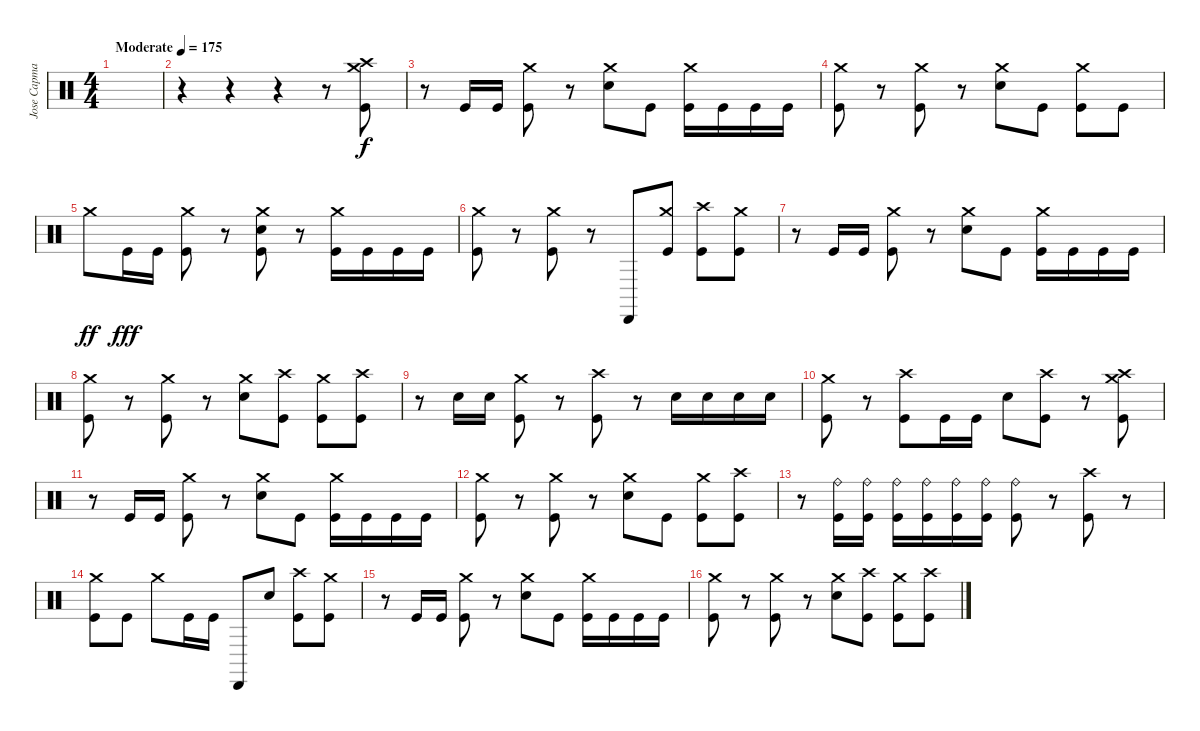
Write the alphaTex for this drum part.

\track ("Jose Capmany" "Jose Capma") {instrument percussion}
\staff {score}
\articulation defaults
\ts (4 4)
\tempo (175 "Moderate")
\clef neutral
\ks c
|
r.4 r.4 r.4 r.8 ("Crash high (hit)" "Crash medium (hit)" "Kick (hit)").8 |
r.8 "Kick (hit)".16 "Kick (hit)".16 ("Crash medium (hit)" "Kick (hit)").8 r.8 ("Crash medium (hit)" "Snare (hit) 2").8 "Kick (hit)".8 ("Crash medium (hit)" "Kick (hit)").16 "Kick (hit)".16 "Kick (hit)".16 "Kick (hit)".16 |
("Crash medium (hit)" "Kick (hit)").8 r.8 ("Crash medium (hit)" "Kick (hit)").8 r.8 ("Crash medium (hit)" "Snare (hit) 2").8 "Kick (hit)".8 ("Crash medium (hit)" "Kick (hit)").8 "Kick (hit)".8 |
"Crash medium (hit)".8{dy ff} "Kick (hit)".16{dy fff} "Kick (hit)".16 ("Crash medium (hit)" "Kick (hit)").8 r.8 ("Crash medium (hit)" "Snare (hit) 2" "Kick (hit)").8 r.8 ("Crash medium (hit)" "Kick (hit)").16 "Kick (hit)".16 "Kick (hit)".16 "Kick (hit)".16 |
("Crash medium (hit)" "Kick (hit)").8 r.8 ("Crash medium (hit)" "Kick (hit)").8 r.8 "Cabasa (hit)".8 ("Crash medium (hit)" "Kick (hit)").8 ("Crash high (hit)" "Kick (hit)").8 ("Crash medium (hit)" "Kick (hit)").8 |
r.8 "Kick (hit)".16 "Kick (hit)".16 ("Crash medium (hit)" "Kick (hit)").8 r.8 ("Crash medium (hit)" "Snare (hit) 2").8 "Kick (hit)".8 ("Crash medium (hit)" "Kick (hit)").16 "Kick (hit)".16 "Kick (hit)".16 "Kick (hit)".16 |
("Crash medium (hit)" "Kick (hit)").8 r.8 ("Crash medium (hit)" "Kick (hit)").8 r.8 ("Crash medium (hit)" "Snare (hit) 2").8 ("Crash high (hit)" "Kick (hit)").8 ("Crash medium (hit)" "Kick (hit)").8 ("Crash high (hit)" "Kick (hit)").8 |
r.8 "Snare (hit) 2".16 "Snare (hit) 2".16 ("Crash medium (hit)" "Kick (hit)").8 r.8 ("Crash high (hit)" "Kick (hit)").8 r.8 "Snare (hit) 2".16 "Snare (hit) 2".16 "Snare (hit) 2".16 "Snare (hit) 2".16 |
("Crash medium (hit)" "Kick (hit)").8 r.8 ("Crash high (hit)" "Kick (hit)").8 "Kick (hit)".16 "Kick (hit)".16 "Snare (hit) 2".8 ("Crash high (hit)" "Kick (hit)").8 r.8 ("Crash medium (hit)" "Crash high (hit)" "Kick (hit)").8 |
r.8 "Kick (hit)".16 "Kick (hit)".16 ("Crash medium (hit)" "Kick (hit)").8 r.8 ("Crash medium (hit)" "Snare (hit) 2").8 "Kick (hit)".8 ("Crash medium (hit)" "Kick (hit)").16 "Kick (hit)".16 "Kick (hit)".16 "Kick (hit)".16 |
("Crash medium (hit)" "Kick (hit)").8 r.8 ("Crash medium (hit)" "Kick (hit)").8 r.8 ("Crash medium (hit)" "Snare (hit) 2").8 "Kick (hit)".8 ("Crash medium (hit)" "Kick (hit)").8 ("Crash high (hit)" "Kick (hit)").8 |
r.8 ("Ride (bell)" "Kick (hit)").16 ("Ride (bell)" "Kick (hit)").16 ("Ride (bell)" "Kick (hit)").16 ("Ride (bell)" "Kick (hit)").16 ("Ride (bell)" "Kick (hit)").16 ("Ride (bell)" "Kick (hit)").16 ("Ride (bell)" "Kick (hit)").8 r.8 ("Crash high (hit)" "Kick (hit)").8 r.8 |
("Crash medium (hit)" "Kick (hit)").8 "Kick (hit)".8 "Crash medium (hit)".8 "Kick (hit)".16 "Kick (hit)".16 "Cabasa (hit)".8 "Snare (hit) 2".8 ("Crash high (hit)" "Kick (hit)").8 ("Crash medium (hit)" "Kick (hit)").8 |
r.8 "Kick (hit)".16 "Kick (hit)".16 ("Crash medium (hit)" "Kick (hit)").8 r.8 ("Crash medium (hit)" "Snare (hit) 2").8 "Kick (hit)".8 ("Crash medium (hit)" "Kick (hit)").16 "Kick (hit)".16 "Kick (hit)".16 "Kick (hit)".16 |
("Crash medium (hit)" "Kick (hit)").8 r.8 ("Crash medium (hit)" "Kick (hit)").8 r.8 ("Crash medium (hit)" "Snare (hit) 2").8 ("Crash high (hit)" "Kick (hit)").8 ("Crash medium (hit)" "Kick (hit)").8 ("Crash high (hit)" "Kick (hit)").8
